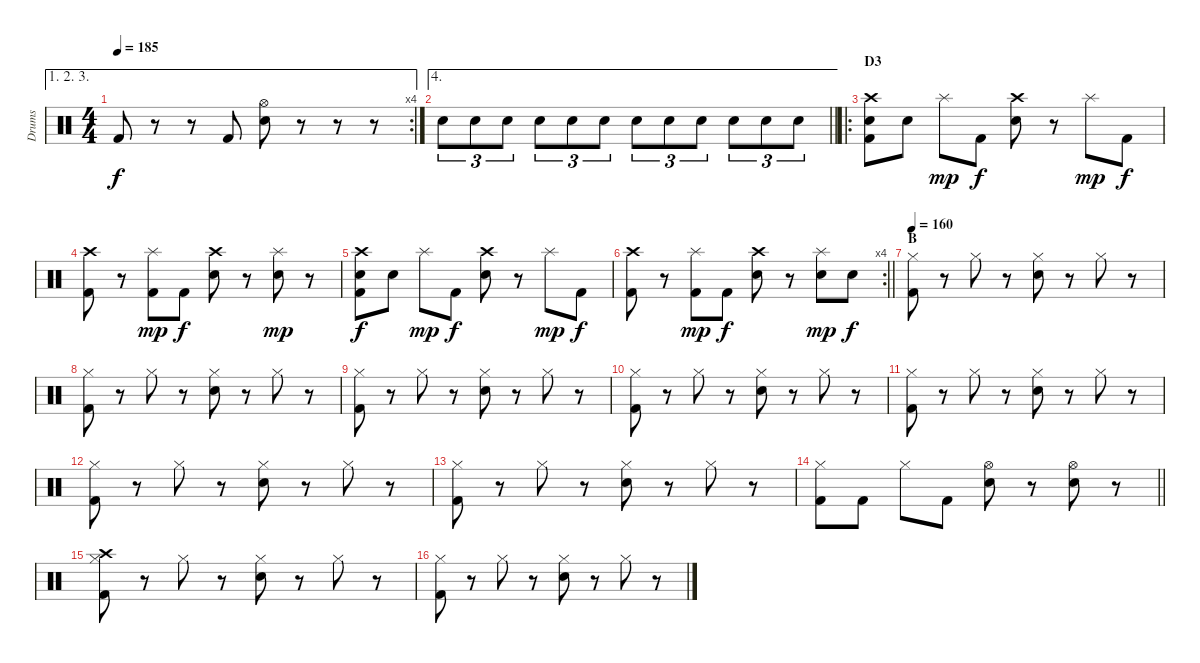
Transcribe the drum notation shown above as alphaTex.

\track ("Drums" "Drums") {instrument percussion}
\staff {score}
\articulation defaults
\ae (1 2 3)
\rc 4
\ts (4 4)
\tempo 185
\clef neutral
\ks c "Kick (hit) 2".8{dy f}
r.8 r.8 "Kick (hit) 2".8 ("Hi-Hat (open)" "Snare (hit) 2").8 r.8 r.8 r.8 |
\ae 4
\barLineRight lightlight "Snare (hit) 2".8{tu (3 2)} "Snare (hit) 2".8{tu (3 2)} "Snare (hit) 2".8{tu (3 2)} "Snare (hit) 2".8{tu (3 2)} "Snare (hit) 2".8{tu (3 2)} "Snare (hit) 2".8{tu (3 2)} "Snare (hit) 2".8{tu (3 2)} "Snare (hit) 2".8{tu (3 2)} "Snare (hit) 2".8{tu (3 2)} "Snare (hit) 2".8{tu (3 2)} "Snare (hit) 2".8{tu (3 2)} "Snare (hit) 2".8{tu (3 2)}
|
\ro
\section ("" "D3")
("Crash high (hit)" "Snare (hit) 2" "Kick (hit) 2").8 "Snare (hit) 2".8 "Splash (hit)".8{dy mp} "Kick (hit) 2".8{dy f} ("Crash high (hit)" "Snare (hit) 2").8 r.8 "Splash (hit)".8{dy mp} "Kick (hit) 2".8{dy f} |
("Crash high (hit)" "Kick (hit) 2").8 r.8 ("Splash (hit)" "Kick (hit) 2").8{dy mp} "Kick (hit) 2".8{dy f} ("Crash high (hit)" "Snare (hit) 2").8 r.8 ("Splash (hit)" "Snare (hit) 2").8{dy mp} r.8 |
("Crash high (hit)" "Snare (hit) 2" "Kick (hit) 2").8{dy f} "Snare (hit) 2".8 "Splash (hit)".8{dy mp} "Kick (hit) 2".8{dy f} ("Crash high (hit)" "Snare (hit) 2").8 r.8 "Splash (hit)".8{dy mp} "Kick (hit) 2".8{dy f} |
\rc 4
\barLineRight lightlight
("Crash high (hit)" "Kick (hit) 2").8 r.8 ("Splash (hit)" "Kick (hit) 2").8{dy mp} "Kick (hit) 2".8{dy f} ("Crash high (hit)" "Snare (hit) 2").8 r.8 ("Splash (hit)" "Snare (hit) 2").8{dy mp} "Snare (hit) 2".8{dy f} |
\section ("" "B")
\tempo 160
("Hi-Hat (closed)" "Kick (hit) 2").8 r.8 "Hi-Hat (closed)".8 r.8 ("Hi-Hat (closed)" "Snare (hit) 2").8 r.8 "Hi-Hat (closed)".8 r.8 |
("Hi-Hat (closed)" "Kick (hit) 2").8 r.8 "Hi-Hat (closed)".8 r.8 ("Hi-Hat (closed)" "Snare (hit) 2").8 r.8 "Hi-Hat (closed)".8 r.8 |
("Hi-Hat (closed)" "Kick (hit) 2").8 r.8 "Hi-Hat (closed)".8 r.8 ("Hi-Hat (closed)" "Snare (hit) 2").8 r.8 "Hi-Hat (closed)".8 r.8 |
("Hi-Hat (closed)" "Kick (hit) 2").8 r.8 "Hi-Hat (closed)".8 r.8 ("Hi-Hat (closed)" "Snare (hit) 2").8 r.8 "Hi-Hat (closed)".8 r.8 |
("Hi-Hat (closed)" "Kick (hit) 2").8 r.8 "Hi-Hat (closed)".8 r.8 ("Hi-Hat (closed)" "Snare (hit) 2").8 r.8 "Hi-Hat (closed)".8 r.8 |
("Hi-Hat (closed)" "Kick (hit) 2").8 r.8 "Hi-Hat (closed)".8 r.8 ("Hi-Hat (closed)" "Snare (hit) 2").8 r.8 "Hi-Hat (closed)".8 r.8 |
("Hi-Hat (closed)" "Kick (hit) 2").8 r.8 "Hi-Hat (closed)".8 r.8 ("Hi-Hat (closed)" "Snare (hit) 2").8 r.8 "Hi-Hat (closed)".8 r.8 |
\barLineRight lightlight
("Hi-Hat (closed)" "Kick (hit) 2").8 "Kick (hit) 2".8 "Hi-Hat (closed)".8 "Kick (hit) 2".8 ("Hi-Hat (open)" "Snare (hit) 2").8 r.8 ("Hi-Hat (open)" "Snare (hit) 2").8 r.8 |
("Crash high (hit)" "Hi-Hat (closed)" "Kick (hit) 2").8 r.8 "Hi-Hat (closed)".8 r.8 ("Hi-Hat (closed)" "Snare (hit) 2").8 r.8 "Hi-Hat (closed)".8 r.8 |
("Hi-Hat (closed)" "Kick (hit) 2").8 r.8 "Hi-Hat (closed)".8 r.8 ("Hi-Hat (closed)" "Snare (hit) 2").8 r.8 "Hi-Hat (closed)".8 r.8
